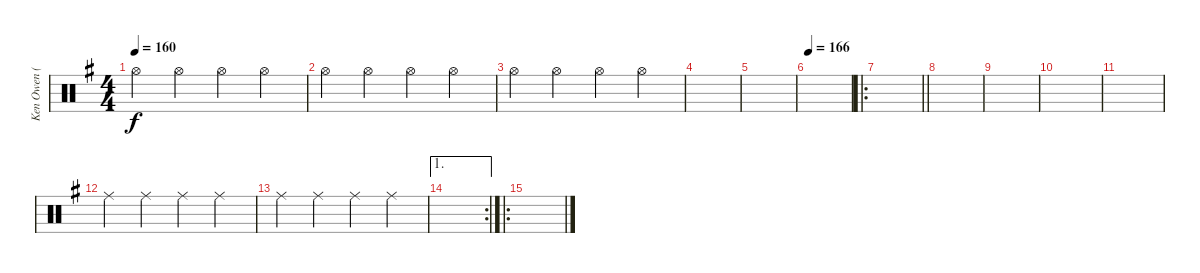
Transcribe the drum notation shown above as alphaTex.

\track ("Ken Owen (Extra Cymbals)" "Ken Owen (") {instrument percussion}
\staff {score}
\articulation defaults
\ts (4 4)
\tempo 160
\clef neutral
\ks g "Hi-Hat (open)".4{dy f} "Hi-Hat (open)".4 "Hi-Hat (open)".4 "Hi-Hat (open)".4
|
"Hi-Hat (open)".4 "Hi-Hat (open)".4 "Hi-Hat (open)".4 "Hi-Hat (open)".4 |
"Hi-Hat (open)".4 "Hi-Hat (open)".4 "Hi-Hat (open)".4 "Hi-Hat (open)".4 |
|
|
\tempo 166
|
\ro
\barLineRight lightlight
|
|
|
|
|
"Ride (middle)".4 "Ride (middle)".4 "Ride (middle)".4 "Ride (middle)".4 |
"Ride (middle)".4 "Ride (middle)".4 "Ride (middle)".4 "Ride (middle)".4 |
\ae 1
\rc 2
|
\ro
